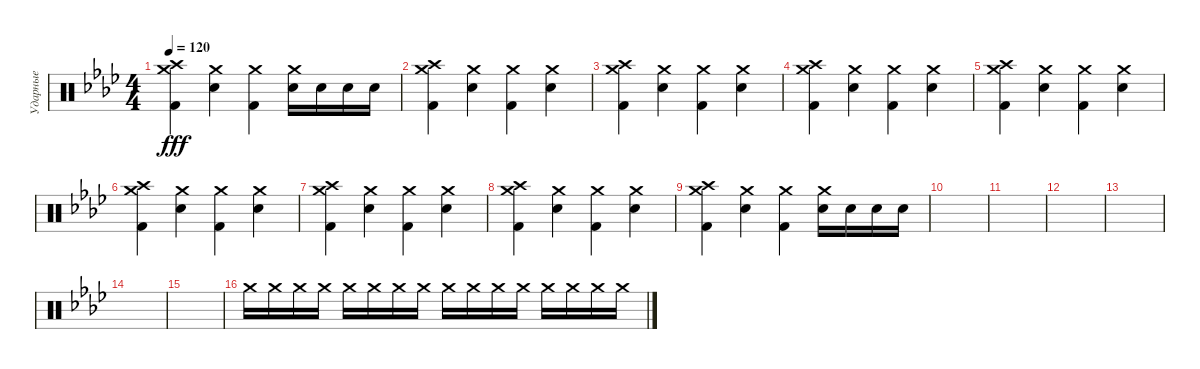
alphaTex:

\track ("Ударные" "Ударные") {instrument percussion}
\staff {score}
\articulation defaults
\ts (4 4)
\tempo 120
\clef neutral
\ks ab
("Crash high (hit)" "Crash medium (hit)" "Kick (hit) 2").4{dy fff} ("Crash medium (hit)" "Snare (hit) 2").4 ("Crash medium (hit)" "Kick (hit) 2").4 ("Crash medium (hit)" "Snare (hit) 2").16 "Snare (hit) 2".16 "Snare (hit) 2".16 "Snare (hit) 2".16 |
("Crash high (hit)" "Crash medium (hit)" "Kick (hit) 2").4 ("Crash medium (hit)" "Snare (hit) 2").4 ("Crash medium (hit)" "Kick (hit) 2").4 ("Crash medium (hit)" "Snare (hit) 2").4 |
("Crash high (hit)" "Crash medium (hit)" "Kick (hit) 2").4 ("Crash medium (hit)" "Snare (hit) 2").4 ("Crash medium (hit)" "Kick (hit) 2").4 ("Crash medium (hit)" "Snare (hit) 2").4 |
("Crash high (hit)" "Crash medium (hit)" "Kick (hit) 2").4 ("Crash medium (hit)" "Snare (hit) 2").4 ("Crash medium (hit)" "Kick (hit) 2").4 ("Crash medium (hit)" "Snare (hit) 2").4 |
("Crash high (hit)" "Crash medium (hit)" "Kick (hit) 2").4 ("Crash medium (hit)" "Snare (hit) 2").4 ("Crash medium (hit)" "Kick (hit) 2").4 ("Crash medium (hit)" "Snare (hit) 2").4 |
("Crash high (hit)" "Crash medium (hit)" "Kick (hit) 2").4 ("Crash medium (hit)" "Snare (hit) 2").4 ("Crash medium (hit)" "Kick (hit) 2").4 ("Crash medium (hit)" "Snare (hit) 2").4 |
("Crash high (hit)" "Crash medium (hit)" "Kick (hit) 2").4 ("Crash medium (hit)" "Snare (hit) 2").4 ("Crash medium (hit)" "Kick (hit) 2").4 ("Crash medium (hit)" "Snare (hit) 2").4 |
("Crash high (hit)" "Crash medium (hit)" "Kick (hit) 2").4 ("Crash medium (hit)" "Snare (hit) 2").4 ("Crash medium (hit)" "Kick (hit) 2").4 ("Crash medium (hit)" "Snare (hit) 2").4 |
("Crash high (hit)" "Crash medium (hit)" "Kick (hit) 2").4 ("Crash medium (hit)" "Snare (hit) 2").4 ("Crash medium (hit)" "Kick (hit) 2").4 ("Crash medium (hit)" "Snare (hit) 2").16 "Snare (hit) 2".16 "Snare (hit) 2".16 "Snare (hit) 2".16 |
|
|
|
|
|
|
"Crash medium (hit)".16{volume 13} "Crash medium (hit)".16 "Crash medium (hit)".16 "Crash medium (hit)".16 "Crash medium (hit)".16 "Crash medium (hit)".16 "Crash medium (hit)".16 "Crash medium (hit)".16 "Crash medium (hit)".16 "Crash medium (hit)".16 "Crash medium (hit)".16 "Crash medium (hit)".16 "Crash medium (hit)".16 "Crash medium (hit)".16 "Crash medium (hit)".16 "Crash medium (hit)".16
